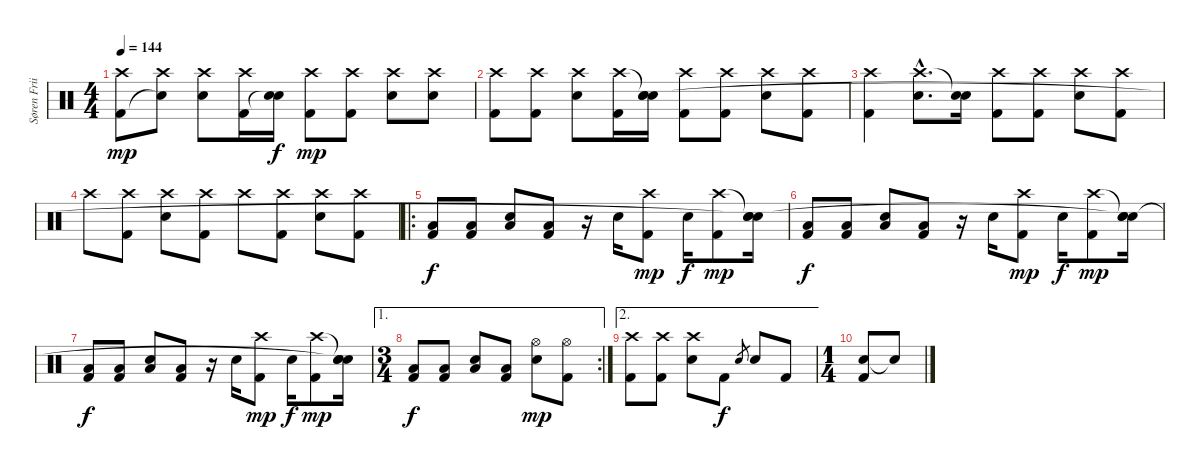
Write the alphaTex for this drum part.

\track ("Søren Friis" "Søren Frii") {instrument percussion}
\staff {score}
\articulation defaults
\ts (4 4)
\tempo 144
\clef neutral
\ks c
("Crash high (hit)" "Kick (hit) 2").8{dy mp} ("Crash high (hit)" "Snare (hit)"{t}).8 ("Crash high (hit)" "Snare (hit) 2").8 ("Crash high (hit)" "Kick (hit) 2").16 ("Snare (hit) 2" "Snare (hit)"{t}).16{dy f} ("Crash high (hit)" "Kick (hit) 2").8{dy mp} ("Crash high (hit)" "Kick (hit) 2").8 ("Crash high (hit)" "Snare (hit) 2").8 ("Crash high (hit)" "Snare (hit) 2").8 |
("Crash high (hit)" "Kick (hit) 2").8 ("Crash high (hit)" "Kick (hit) 2").8 ("Crash high (hit)" "Snare (hit) 2").8 ("Crash high (hit)" "Kick (hit) 2").16 ("Snare (hit)"{t} "Snare (hit) 2" "Snare (hit)").16 ("Crash high (hit)" "Kick (hit) 2").8 ("Crash high (hit)" "Kick (hit) 2").8 ("Crash high (hit)" "Snare (hit) 2").8 ("Crash high (hit)" "Kick (hit) 2").8 |
("Crash high (hit)" "Kick (hit) 2").4 ("Crash high (hit)"{hac} "Snare (hit) 2"{hac}).8{d} ("Snare (hit)"{t} "Snare (hit) 2").16 ("Crash high (hit)" "Kick (hit) 2").8 ("Crash high (hit)" "Kick (hit) 2").8 ("Crash high (hit)" "Snare (hit) 2").8 ("Crash high (hit)" "Kick (hit) 2").8 |
"Crash high (hit)".8 ("Crash high (hit)" "Kick (hit) 2").8 ("Crash high (hit)" "Snare (hit) 2").8 ("Crash high (hit)" "Kick (hit) 2").8 "Crash high (hit)".8 ("Crash high (hit)" "Kick (hit) 2").8 ("Crash high (hit)" "Snare (hit) 2").8 ("Crash high (hit)" "Kick (hit) 2").8 |
\ro
("Low Tom (hit)" "Kick (hit) 2").8{dy f} ("Low Tom (hit)" "Kick (hit) 2").8 ("Snare (hit) 2" "Low Tom (hit)").8 ("Low Tom (hit)" "Kick (hit) 2").8 r.16 "Snare (hit) 2".16 ("Crash high (hit)" "Kick (hit) 2").8{dy mp} "Snare (hit) 2".16{dy f} ("Crash high (hit)" "Kick (hit) 2").8{dy mp} ("Snare (hit)"{t} "Snare (hit) 2" "Snare (hit)"{t}).16 |
("Low Tom (hit)" "Kick (hit) 2").8{dy f} ("Low Tom (hit)" "Kick (hit) 2").8 ("Snare (hit) 2" "Low Tom (hit)").8 ("Low Tom (hit)" "Kick (hit) 2").8 r.16 "Snare (hit) 2".16 ("Crash high (hit)" "Kick (hit) 2").8{dy mp} "Snare (hit) 2".16{dy f} ("Crash high (hit)" "Kick (hit) 2").8{dy mp} ("Snare (hit)"{t} "Snare (hit) 2" "Snare (hit)"{t}).16 |
("Low Tom (hit)" "Kick (hit) 2").8{dy f} ("Low Tom (hit)" "Kick (hit) 2").8 ("Snare (hit) 2" "Low Tom (hit)").8 ("Low Tom (hit)" "Kick (hit) 2").8 r.16 "Snare (hit) 2".16 ("Crash high (hit)" "Kick (hit) 2").8{dy mp} "Snare (hit) 2".16{dy f} ("Crash high (hit)" "Kick (hit) 2").8{dy mp} ("Snare (hit)"{t} "Snare (hit) 2" "Snare (hit)"{t}).16 |
\ae 1
\rc 2
\ts (3 4)
("Low Tom (hit)" "Kick (hit) 2").8{dy f} ("Low Tom (hit)" "Kick (hit) 2").8 ("Snare (hit) 2" "Low Tom (hit)").8 ("Low Tom (hit)" "Kick (hit) 2").8 ("Hi-Hat (open)" "Snare (hit) 2").8{dy mp} ("Hi-Hat (open)" "Kick (hit) 2").8 |
\ae 2
("Crash high (hit)" "Kick (hit) 2").8 ("Crash high (hit)" "Kick (hit) 2").8 ("Crash high (hit)" "Snare (hit) 2").8 "Kick (hit) 2".8{dy f} "Snare (hit) 2".8{gr} "Snare (hit) 2".8 "Kick (hit) 2".8 |
\ts (1 4)
("Snare (hit) 2" "Kick (hit) 2").8 "Snare (hit)"{t}.8
